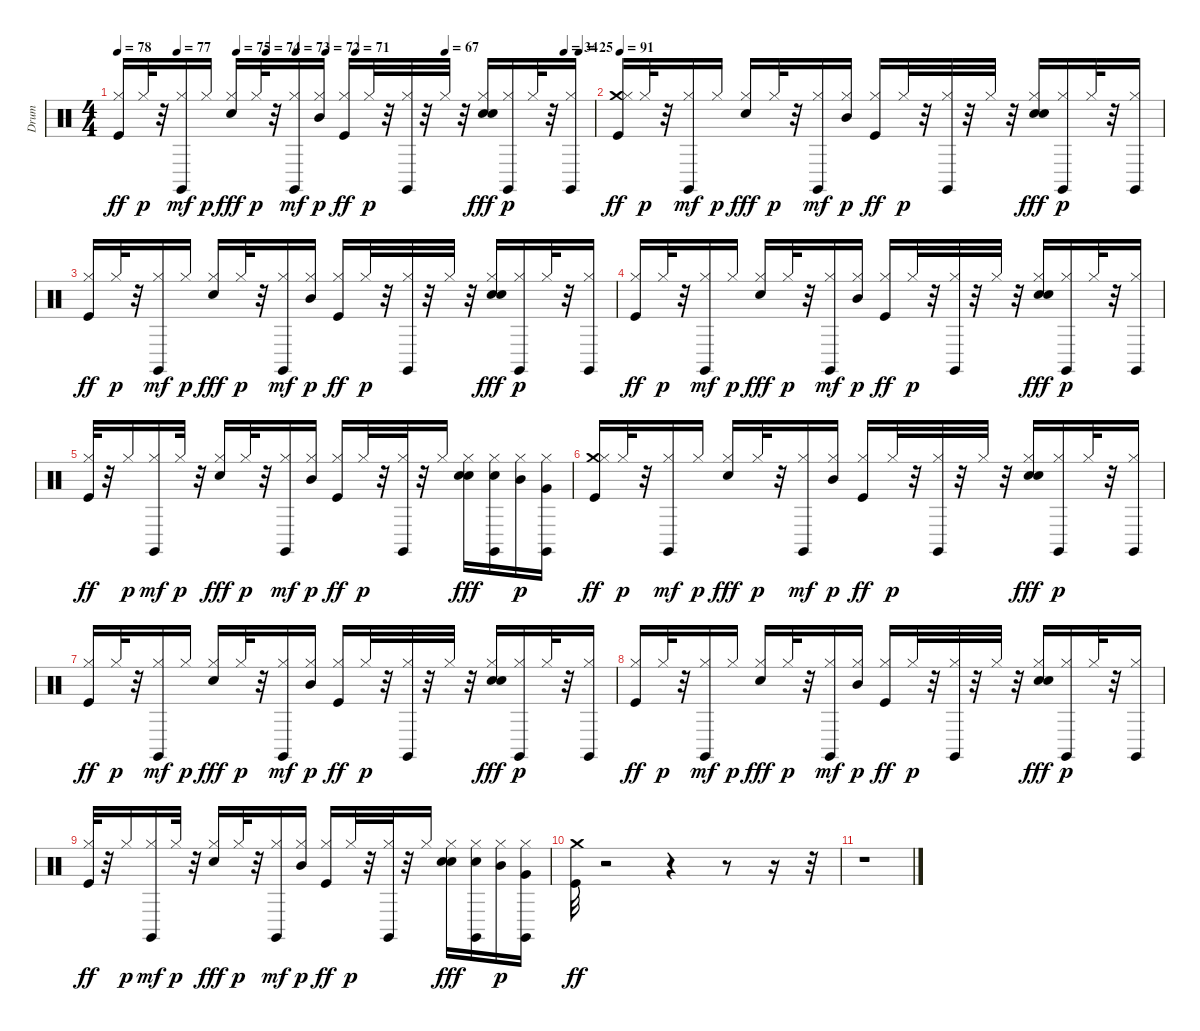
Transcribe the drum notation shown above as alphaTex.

\track ("Drum" "Drum") {instrument percussion}
\staff {score}
\articulation defaults
\ts (4 4)
\tempo 78
\tempo (77 0.125)
\tempo (75 0.25)
\tempo (74 0.3125)
\tempo (73 0.375)
\tempo (72 0.4375)
\tempo (71 0.5)
\tempo (67 0.6875)
\tempo (34 0.9375)
\tempo (25 0.96875)
\clef neutral
\ks c
("Kick (hit)" "Hi-Hat (closed)").16{dy ff} "Hi-Hat (closed)".32{dy p} r.32 ("Hi-Hat (closed)" "Claves (hit)").16{dy mf} "Hi-Hat (closed)".16{dy p} ("Hi-Hat (closed)" "Snare (hit) 2").16{dy fff} "Hi-Hat (closed)".32{dy p} r.32 ("Hi-Hat (closed)" "Claves (hit)").16{dy mf} ("Hi-Hat (closed)" "Mid Tom (hit)").16{dy p} ("Kick (hit)" "Hi-Hat (closed)").16{dy ff} "Hi-Hat (closed)".32{dy p} r.32 ("Hi-Hat (closed)" "Claves (hit)").32 r.32 "Hi-Hat (closed)".32 r.32 ("Hi-Hat (closed)" "Snare (hit) 2" "Hand Clap (hit)").16{dy fff} ("Hi-Hat (closed)" "Claves (hit)").16{dy p} "Hi-Hat (closed)".32 r.32 ("Hi-Hat (closed)" "Claves (hit)").16 |
\tempo 91
("Crash medium (hit)" "Kick (hit)" "Hi-Hat (closed)").16{dy ff} "Hi-Hat (closed)".32{dy p} r.32 ("Hi-Hat (closed)" "Claves (hit)").16{dy mf} "Hi-Hat (closed)".16{dy p} ("Hi-Hat (closed)" "Snare (hit) 2").16{dy fff} "Hi-Hat (closed)".32{dy p} r.32 ("Hi-Hat (closed)" "Claves (hit)").16{dy mf} ("Hi-Hat (closed)" "Mid Tom (hit)").16{dy p} ("Kick (hit)" "Hi-Hat (closed)").16{dy ff} "Hi-Hat (closed)".32{dy p} r.32 ("Hi-Hat (closed)" "Claves (hit)").32 r.32 "Hi-Hat (closed)".32 r.32 ("Hi-Hat (closed)" "Snare (hit) 2" "Hand Clap (hit)").16{dy fff} ("Hi-Hat (closed)" "Claves (hit)").16{dy p} "Hi-Hat (closed)".32 r.32 ("Hi-Hat (closed)" "Claves (hit)").16 |
("Kick (hit)" "Hi-Hat (closed)").16{dy ff} "Hi-Hat (closed)".32{dy p} r.32 ("Hi-Hat (closed)" "Claves (hit)").16{dy mf} "Hi-Hat (closed)".16{dy p} ("Hi-Hat (closed)" "Snare (hit) 2").16{dy fff} "Hi-Hat (closed)".32{dy p} r.32 ("Hi-Hat (closed)" "Claves (hit)").16{dy mf} ("Hi-Hat (closed)" "Mid Tom (hit)").16{dy p} ("Kick (hit)" "Hi-Hat (closed)").16{dy ff} "Hi-Hat (closed)".32{dy p} r.32 ("Hi-Hat (closed)" "Claves (hit)").32 r.32 "Hi-Hat (closed)".32 r.32 ("Hi-Hat (closed)" "Snare (hit) 2" "Hand Clap (hit)").16{dy fff} ("Hi-Hat (closed)" "Claves (hit)").16{dy p} "Hi-Hat (closed)".32 r.32 ("Hi-Hat (closed)" "Claves (hit)").16 |
("Kick (hit)" "Hi-Hat (closed)").16{dy ff} "Hi-Hat (closed)".32{dy p} r.32 ("Hi-Hat (closed)" "Claves (hit)").16{dy mf} "Hi-Hat (closed)".16{dy p} ("Hi-Hat (closed)" "Snare (hit) 2").16{dy fff} "Hi-Hat (closed)".32{dy p} r.32 ("Hi-Hat (closed)" "Claves (hit)").16{dy mf} ("Hi-Hat (closed)" "Mid Tom (hit)").16{dy p} ("Kick (hit)" "Hi-Hat (closed)").16{dy ff} "Hi-Hat (closed)".32{dy p} r.32 ("Hi-Hat (closed)" "Claves (hit)").32 r.32 "Hi-Hat (closed)".32 r.32 ("Hi-Hat (closed)" "Snare (hit) 2" "Hand Clap (hit)").16{dy fff} ("Hi-Hat (closed)" "Claves (hit)").16{dy p} "Hi-Hat (closed)".32 r.32 ("Hi-Hat (closed)" "Claves (hit)").16 |
("Kick (hit)" "Hi-Hat (closed)").32{dy ff} r.32 "Hi-Hat (closed)".16{dy p} ("Hi-Hat (closed)" "Claves (hit)").16{dy mf} "Hi-Hat (closed)".32{dy p} r.32 ("Hi-Hat (closed)" "Snare (hit) 2").16{dy fff} "Hi-Hat (closed)".32{dy p} r.32 ("Hi-Hat (closed)" "Claves (hit)").16{dy mf} ("Hi-Hat (closed)" "Mid Tom (hit)").16{dy p} ("Kick (hit)" "Hi-Hat (closed)").16{dy ff} "Hi-Hat (closed)".32{dy p} r.32 ("Hi-Hat (closed)" "Claves (hit)").32 r.32 "Hi-Hat (closed)".16 ("Hi-Hat (closed)" "Snare (hit) 2" "Hand Clap (hit)").16{dy fff} ("Hi-Hat (closed)" "Snare (hit) 2" "Claves (hit)").16 ("Hi-Hat (closed)" "Mid Tom (hit)").16{dy p} ("Hi-Hat (closed)" "Claves (hit)" "Very Low Tom (hit)").16 |
("Crash medium (hit)" "Kick (hit)" "Hi-Hat (closed)").16{dy ff} "Hi-Hat (closed)".32{dy p} r.32 ("Hi-Hat (closed)" "Claves (hit)").16{dy mf} "Hi-Hat (closed)".16{dy p} ("Hi-Hat (closed)" "Snare (hit) 2").16{dy fff} "Hi-Hat (closed)".32{dy p} r.32 ("Hi-Hat (closed)" "Claves (hit)").16{dy mf} ("Hi-Hat (closed)" "Mid Tom (hit)").16{dy p} ("Kick (hit)" "Hi-Hat (closed)").16{dy ff} "Hi-Hat (closed)".32{dy p} r.32 ("Hi-Hat (closed)" "Claves (hit)").32 r.32 "Hi-Hat (closed)".32 r.32 ("Hi-Hat (closed)" "Snare (hit) 2" "Hand Clap (hit)").16{dy fff} ("Hi-Hat (closed)" "Claves (hit)").16{dy p} "Hi-Hat (closed)".32 r.32 ("Hi-Hat (closed)" "Claves (hit)").16 |
("Kick (hit)" "Hi-Hat (closed)").16{dy ff} "Hi-Hat (closed)".32{dy p} r.32 ("Hi-Hat (closed)" "Claves (hit)").16{dy mf} "Hi-Hat (closed)".16{dy p} ("Hi-Hat (closed)" "Snare (hit) 2").16{dy fff} "Hi-Hat (closed)".32{dy p} r.32 ("Hi-Hat (closed)" "Claves (hit)").16{dy mf} ("Hi-Hat (closed)" "Mid Tom (hit)").16{dy p} ("Kick (hit)" "Hi-Hat (closed)").16{dy ff} "Hi-Hat (closed)".32{dy p} r.32 ("Hi-Hat (closed)" "Claves (hit)").32 r.32 "Hi-Hat (closed)".32 r.32 ("Hi-Hat (closed)" "Snare (hit) 2" "Hand Clap (hit)").16{dy fff} ("Hi-Hat (closed)" "Claves (hit)").16{dy p} "Hi-Hat (closed)".32 r.32 ("Hi-Hat (closed)" "Claves (hit)").16 |
("Kick (hit)" "Hi-Hat (closed)").16{dy ff} "Hi-Hat (closed)".32{dy p} r.32 ("Hi-Hat (closed)" "Claves (hit)").16{dy mf} "Hi-Hat (closed)".16{dy p} ("Hi-Hat (closed)" "Snare (hit) 2").16{dy fff} "Hi-Hat (closed)".32{dy p} r.32 ("Hi-Hat (closed)" "Claves (hit)").16{dy mf} ("Hi-Hat (closed)" "Mid Tom (hit)").16{dy p} ("Kick (hit)" "Hi-Hat (closed)").16{dy ff} "Hi-Hat (closed)".32{dy p} r.32 ("Hi-Hat (closed)" "Claves (hit)").32 r.32 "Hi-Hat (closed)".32 r.32 ("Hi-Hat (closed)" "Snare (hit) 2" "Hand Clap (hit)").16{dy fff} ("Hi-Hat (closed)" "Claves (hit)").16{dy p} "Hi-Hat (closed)".32 r.32 ("Hi-Hat (closed)" "Claves (hit)").16 |
("Kick (hit)" "Hi-Hat (closed)").32{dy ff} r.32 "Hi-Hat (closed)".16{dy p} ("Hi-Hat (closed)" "Claves (hit)").16{dy mf} "Hi-Hat (closed)".32{dy p} r.32 ("Hi-Hat (closed)" "Snare (hit) 2").16{dy fff} "Hi-Hat (closed)".32{dy p} r.32 ("Hi-Hat (closed)" "Claves (hit)").16{dy mf} ("Hi-Hat (closed)" "Mid Tom (hit)").16{dy p} ("Kick (hit)" "Hi-Hat (closed)").16{dy ff} "Hi-Hat (closed)".32{dy p} r.32 ("Hi-Hat (closed)" "Claves (hit)").32 r.32 "Hi-Hat (closed)".16 ("Hi-Hat (closed)" "Snare (hit) 2" "Hand Clap (hit)").16{dy fff} ("Hi-Hat (closed)" "Snare (hit) 2" "Claves (hit)").16 ("Hi-Hat (closed)" "Mid Tom (hit)").16{dy p} ("Hi-Hat (closed)" "Claves (hit)" "Very Low Tom (hit)").16 |
("Kick (hit)" "Crash medium (hit)").32{dy ff} r.2 r.4 r.8 r.16 r.32 |
r.1
